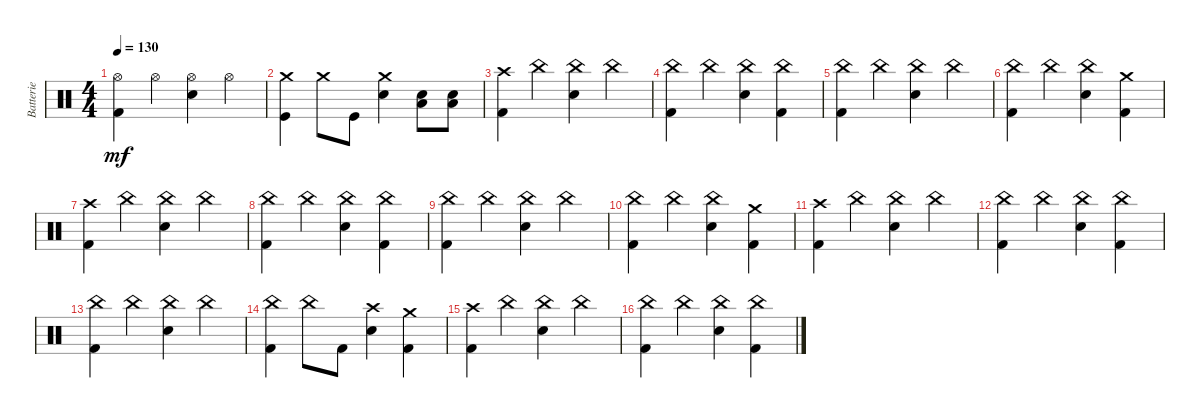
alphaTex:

\track ("Batterie" "Batterie") {instrument percussion}
\staff {score}
\articulation defaults
\ts (4 4)
\tempo 130
\clef neutral
\ks c
("Hi-Hat (open)" "Kick (hit) 2").4{dy mf} "Hi-Hat (open)".4 ("Hi-Hat (open)" "Electric Snare (hit)").4 "Hi-Hat (open)".4 |
("Crash medium (hit)" "Kick (hit)").4 "Crash medium (hit)".8 "Kick (hit)".8 ("Crash medium (hit)" "Electric Snare (hit)").4 ("Electric Snare (hit)" "Low Floor Tom (hit)").8 ("Electric Snare (hit)" "Low Floor Tom (hit)").8 |
("Crash high (hit)" "Kick (hit) 2").4 "China (hit)".4 ("China (hit)" "Electric Snare (hit)").4 "China (hit)".4 |
("China (hit)" "Kick (hit) 2").4 "China (hit)".4 ("China (hit)" "Electric Snare (hit)").4 ("China (hit)" "Kick (hit) 2").4 |
("China (hit)" "Kick (hit) 2").4 "China (hit)".4 ("China (hit)" "Electric Snare (hit)").4 "China (hit)".4 |
("China (hit)" "Kick (hit) 2").4 "China (hit)".4 ("China (hit)" "Electric Snare (hit)").4 ("Crash medium (hit)" "Kick (hit) 2").4 |
("Crash high (hit)" "Kick (hit) 2").4 "China (hit)".4 ("China (hit)" "Electric Snare (hit)").4 "China (hit)".4 |
("China (hit)" "Kick (hit) 2").4 "China (hit)".4 ("China (hit)" "Electric Snare (hit)").4 ("China (hit)" "Kick (hit) 2").4 |
("China (hit)" "Kick (hit) 2").4 "China (hit)".4 ("China (hit)" "Electric Snare (hit)").4 "China (hit)".4 |
("China (hit)" "Kick (hit) 2").4 "China (hit)".4 ("China (hit)" "Electric Snare (hit)").4 ("Crash medium (hit)" "Kick (hit) 2").4 |
("Crash high (hit)" "Kick (hit) 2").4 "China (hit)".4 ("China (hit)" "Electric Snare (hit)").4 "China (hit)".4 |
("China (hit)" "Kick (hit) 2").4 "China (hit)".4 ("China (hit)" "Electric Snare (hit)").4 ("China (hit)" "Kick (hit) 2").4 |
("China (hit)" "Kick (hit) 2").4 "China (hit)".4 ("China (hit)" "Electric Snare (hit)").4 "China (hit)".4 |
("China (hit)" "Kick (hit) 2").4 "China (hit)".8 "Kick (hit) 2".8 ("Crash high (hit)" "Electric Snare (hit)").4 ("Crash medium (hit)" "Kick (hit) 2").4 |
("Crash high (hit)" "Kick (hit) 2").4 "China (hit)".4 ("China (hit)" "Electric Snare (hit)").4 "China (hit)".4 |
("China (hit)" "Kick (hit) 2").4 "China (hit)".4 ("China (hit)" "Electric Snare (hit)").4 ("China (hit)" "Kick (hit) 2").4
